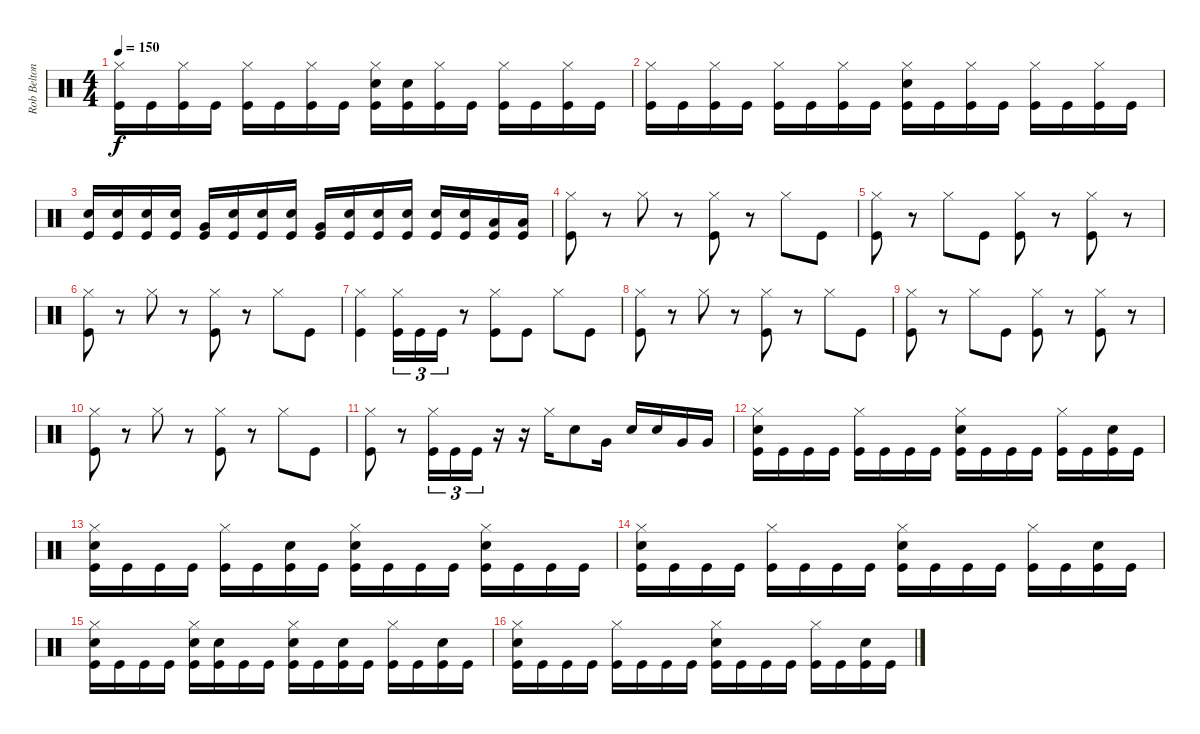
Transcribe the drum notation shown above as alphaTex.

\track ("Rob Belton" "Rob Belton") {instrument percussion}
\staff {score}
\articulation defaults
\ts (4 4)
\tempo 150
\clef neutral
\ks c
("Hi-Hat (closed)" "Kick (hit)").16{dy f} "Kick (hit)".16 ("Hi-Hat (closed)" "Kick (hit)").16 "Kick (hit)".16 ("Hi-Hat (closed)" "Kick (hit)").16 "Kick (hit)".16 ("Hi-Hat (closed)" "Kick (hit)").16 "Kick (hit)".16 ("Hi-Hat (closed)" "Snare (hit) 2" "Kick (hit)").16 ("Snare (hit) 2" "Kick (hit)").16 ("Hi-Hat (closed)" "Kick (hit)").16 "Kick (hit)".16 ("Hi-Hat (closed)" "Kick (hit)").16 "Kick (hit)".16 ("Hi-Hat (closed)" "Kick (hit)").16 "Kick (hit)".16 |
("Hi-Hat (closed)" "Kick (hit)").16 "Kick (hit)".16 ("Hi-Hat (closed)" "Kick (hit)").16 "Kick (hit)".16 ("Hi-Hat (closed)" "Kick (hit)").16 "Kick (hit)".16 ("Hi-Hat (closed)" "Kick (hit)").16 "Kick (hit)".16 ("Hi-Hat (closed)" "Snare (hit) 2" "Kick (hit)").16 "Kick (hit)".16 ("Hi-Hat (closed)" "Kick (hit)").16 "Kick (hit)".16 ("Hi-Hat (closed)" "Kick (hit)").16 "Kick (hit)".16 ("Hi-Hat (closed)" "Kick (hit)").16 "Kick (hit)".16 |
("Snare (hit) 2" "Kick (hit)").16 ("Snare (hit) 2" "Kick (hit)").16 ("Snare (hit) 2" "Kick (hit)").16 ("Snare (hit) 2" "Kick (hit)").16 ("Very Low Tom (hit)" "Kick (hit)").16 ("Snare (hit) 2" "Kick (hit)").16 ("Snare (hit) 2" "Kick (hit)").16 ("Snare (hit) 2" "Kick (hit)").16 ("Very Low Tom (hit)" "Kick (hit)").16 ("Snare (hit) 2" "Kick (hit)").16 ("Snare (hit) 2" "Kick (hit)").16 ("Snare (hit) 2" "Kick (hit)").16 ("Snare (hit) 2" "Kick (hit)").16 ("Snare (hit) 2" "Kick (hit)").16 ("Low Floor Tom (hit)" "Kick (hit)").16 ("Low Floor Tom (hit)" "Kick (hit)").16 |
("Hi-Hat (closed)" "Kick (hit)").8 r.8 "Hi-Hat (closed)".8 r.8 ("Hi-Hat (closed)" "Kick (hit)").8 r.8 "Hi-Hat (closed)".8 "Kick (hit)".8 |
("Hi-Hat (closed)" "Kick (hit)").8 r.8 "Hi-Hat (closed)".8 "Kick (hit)".8 ("Hi-Hat (closed)" "Kick (hit)").8 r.8 ("Hi-Hat (closed)" "Kick (hit)").8 r.8 |
("Hi-Hat (closed)" "Kick (hit)").8 r.8 "Hi-Hat (closed)".8 r.8 ("Hi-Hat (closed)" "Kick (hit)").8 r.8 "Hi-Hat (closed)".8 "Kick (hit)".8 |
("Hi-Hat (closed)" "Kick (hit)").4 ("Hi-Hat (closed)" "Kick (hit)").16{tu (3 2)} "Kick (hit)".16{tu (3 2)} "Kick (hit)".16{tu (3 2)} r.8 ("Hi-Hat (closed)" "Kick (hit)").8 "Kick (hit)".8 "Hi-Hat (closed)".8 "Kick (hit)".8 |
("Hi-Hat (closed)" "Kick (hit)").8 r.8 "Hi-Hat (closed)".8 r.8 ("Hi-Hat (closed)" "Kick (hit)").8 r.8 "Hi-Hat (closed)".8 "Kick (hit)".8 |
("Hi-Hat (closed)" "Kick (hit)").8 r.8 "Hi-Hat (closed)".8 "Kick (hit)".8 ("Hi-Hat (closed)" "Kick (hit)").8 r.8 ("Hi-Hat (closed)" "Kick (hit)").8 r.8 |
("Hi-Hat (closed)" "Kick (hit)").8 r.8 "Hi-Hat (closed)".8 r.8 ("Hi-Hat (closed)" "Kick (hit)").8 r.8 "Hi-Hat (closed)".8 "Kick (hit)".8 |
("Hi-Hat (closed)" "Kick (hit)").8 r.8 ("Hi-Hat (closed)" "Kick (hit)").16{tu (3 2)} "Kick (hit)".16{tu (3 2)} "Kick (hit)".16{tu (3 2)} r.16 r.16 "Hi-Hat (closed)".16 "Snare (hit) 2".8 "Very Low Tom (hit)".16 "Snare (hit) 2".16 "Snare (hit) 2".16 "Very Low Tom (hit)".16 "Very Low Tom (hit)".16 |
("Hi-Hat (closed)" "Snare (hit) 2" "Kick (hit)").16 "Kick (hit)".16 "Kick (hit)".16 "Kick (hit)".16 ("Hi-Hat (closed)" "Kick (hit)").16 "Kick (hit)".16 "Kick (hit)".16 "Kick (hit)".16 ("Hi-Hat (closed)" "Snare (hit) 2" "Kick (hit)").16 "Kick (hit)".16 "Kick (hit)".16 "Kick (hit)".16 ("Hi-Hat (closed)" "Kick (hit)").16 "Kick (hit)".16 ("Snare (hit) 2" "Kick (hit)").16 "Kick (hit)".16 |
("Hi-Hat (closed)" "Snare (hit) 2" "Kick (hit)").16 "Kick (hit)".16 "Kick (hit)".16 "Kick (hit)".16 ("Hi-Hat (closed)" "Kick (hit)").16 "Kick (hit)".16 ("Snare (hit) 2" "Kick (hit)").16 "Kick (hit)".16 ("Hi-Hat (closed)" "Snare (hit) 2" "Kick (hit)").16 "Kick (hit)".16 "Kick (hit)".16 "Kick (hit)".16 ("Hi-Hat (closed)" "Snare (hit) 2" "Kick (hit)").16 "Kick (hit)".16 "Kick (hit)".16 "Kick (hit)".16 |
("Hi-Hat (closed)" "Snare (hit) 2" "Kick (hit)").16 "Kick (hit)".16 "Kick (hit)".16 "Kick (hit)".16 ("Hi-Hat (closed)" "Kick (hit)").16 "Kick (hit)".16 "Kick (hit)".16 "Kick (hit)".16 ("Hi-Hat (closed)" "Snare (hit) 2" "Kick (hit)").16 "Kick (hit)".16 "Kick (hit)".16 "Kick (hit)".16 ("Hi-Hat (closed)" "Kick (hit)").16 "Kick (hit)".16 ("Snare (hit) 2" "Kick (hit)").16 "Kick (hit)".16 |
("Hi-Hat (closed)" "Snare (hit) 2" "Kick (hit)").16 "Kick (hit)".16 "Kick (hit)".16 "Kick (hit)".16 ("Hi-Hat (closed)" "Snare (hit) 2" "Kick (hit)").16 ("Snare (hit) 2" "Kick (hit)").16 "Kick (hit)".16 "Kick (hit)".16 ("Hi-Hat (closed)" "Snare (hit) 2" "Kick (hit)").16 "Kick (hit)".16 ("Snare (hit) 2" "Kick (hit)").16 "Kick (hit)".16 ("Hi-Hat (closed)" "Kick (hit)").16 "Kick (hit)".16 ("Snare (hit) 2" "Kick (hit)").16 "Kick (hit)".16 |
("Hi-Hat (closed)" "Snare (hit) 2" "Kick (hit)").16 "Kick (hit)".16 "Kick (hit)".16 "Kick (hit)".16 ("Hi-Hat (closed)" "Kick (hit)").16 "Kick (hit)".16 "Kick (hit)".16 "Kick (hit)".16 ("Hi-Hat (closed)" "Snare (hit) 2" "Kick (hit)").16 "Kick (hit)".16 "Kick (hit)".16 "Kick (hit)".16 ("Hi-Hat (closed)" "Kick (hit)").16 "Kick (hit)".16 ("Snare (hit) 2" "Kick (hit)").16 "Kick (hit)".16
